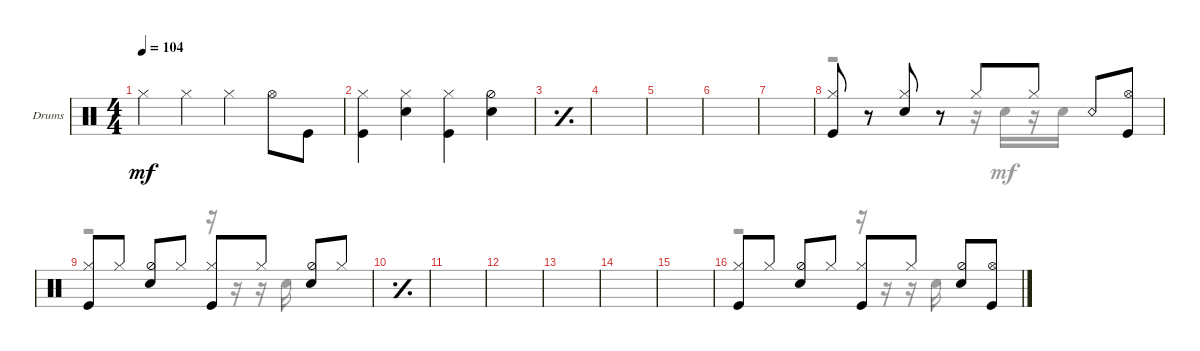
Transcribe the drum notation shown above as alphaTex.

\defaultSystemsLayout 4
\bracketExtendMode groupsimilarinstruments
\firstSystemTrackNameOrientation horizontal
\otherSystemsTrackNameOrientation horizontal
\track ("Алена" "Drums") {instrument percussion}
\staff {score}
\articulation defaults
\voice
\ts (4 4)
\tempo 104
\clef neutral
\ks c "Hi-Hat (closed)".4{dy mf} "Hi-Hat (closed)".4 "Hi-Hat (closed)".4 "Hi-Hat (open)".8 "Kick (hit)".8
|
("Hi-Hat (closed)" "Kick (hit)").4 ("Hi-Hat (closed)" "Snare (hit) 2").4 ("Hi-Hat (closed)" "Kick (hit)").4 ("Hi-Hat (half)" "Snare (hit) 2").4 |
\simile simple
|
|
|
|
|
\simile none
("Hi-Hat (closed)" "Kick (hit)").8 r.8 ("Snare (hit) 2" "Hi-Hat (closed)").8 r.8 "Hi-Hat (closed)".8 "Hi-Hat (closed)".8 "Snare (rim shot)".8 ("Hi-Hat (open)" "Kick (hit)").8 |
("Hi-Hat (closed)" "Kick (hit)").8 "Hi-Hat (closed)".8 ("Hi-Hat (half)" "Snare (hit) 2").8 "Hi-Hat (closed)".8 ("Hi-Hat (closed)" "Kick (hit)").8 "Hi-Hat (closed)".8 ("Hi-Hat (half)" "Snare (hit) 2").8 "Hi-Hat (closed)".8 |
\simile simple
|
|
|
|
|
|
\simile none
("Hi-Hat (closed)" "Kick (hit)").8 "Hi-Hat (closed)".8 ("Hi-Hat (half)" "Snare (hit) 2").8 "Hi-Hat (closed)".8 ("Hi-Hat (closed)" "Kick (hit)").8 "Hi-Hat (closed)".8 ("Hi-Hat (half)" "Snare (hit) 2").8 ("Hi-Hat (open)" "Kick (hit)").8
\voice
\clef neutral
\ottava regular
\simile none
\ks c
|
|
\simile simple
|
|
|
|
|
\simile none
r.2 r.16 "Snare (hit) 2".16 r.16 "Snare (hit) 2".16 |
r.2 r.16 r.16 r.16 "Snare (hit) 2".16 |
\simile simple
|
|
|
|
|
|
\simile none
r.2 r.16 r.16 r.16 "Snare (hit) 2".16
